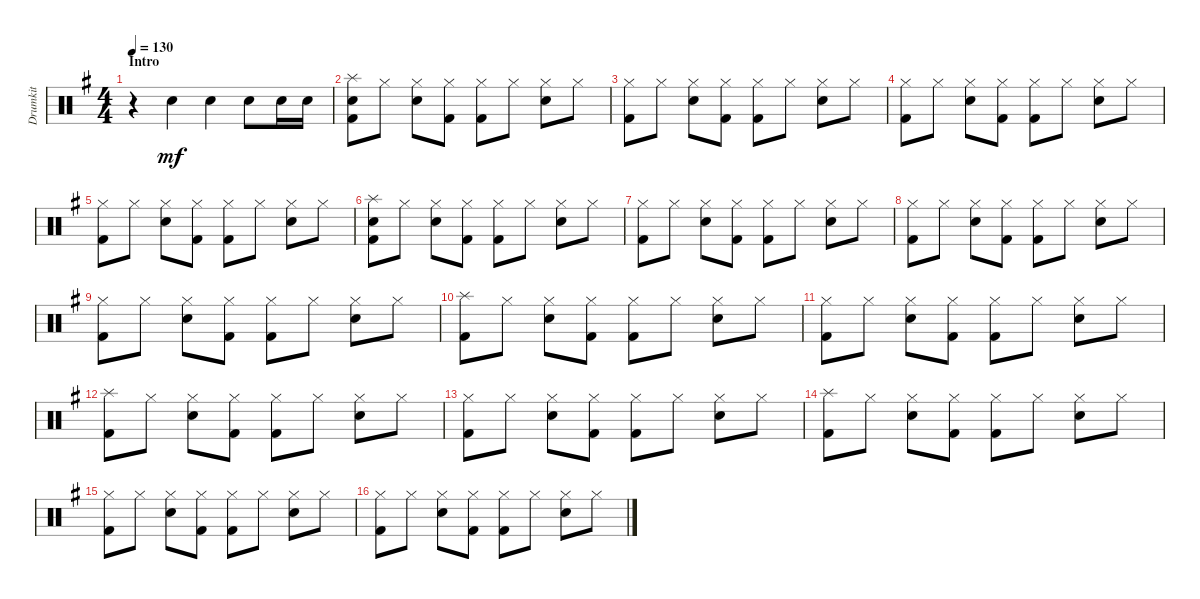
\track ("Drumkit" "Drumkit") {instrument percussion}
\staff {score}
\articulation defaults
\ts (4 4)
\section ("" "Intro")
\tempo 130
\clef neutral
\ks g
r.4{dy mf} "Snare (hit) 2".4 "Snare (hit) 2".4 "Snare (hit) 2".8 "Snare (hit) 2".16 "Snare (hit) 2".16 |
("Snare (hit) 2" "Splash (hit)" "Kick (hit) 2").8 "Hi-Hat (closed)".8 ("Hi-Hat (closed)" "Snare (hit) 2").8 ("Hi-Hat (closed)" "Kick (hit) 2").8 ("Hi-Hat (closed)" "Kick (hit) 2").8 "Hi-Hat (closed)".8 ("Hi-Hat (closed)" "Snare (hit) 2").8 "Hi-Hat (closed)".8 |
("Hi-Hat (closed)" "Kick (hit) 2").8 "Hi-Hat (closed)".8 ("Hi-Hat (closed)" "Snare (hit) 2").8 ("Hi-Hat (closed)" "Kick (hit) 2").8 ("Hi-Hat (closed)" "Kick (hit) 2").8 "Hi-Hat (closed)".8 ("Hi-Hat (closed)" "Snare (hit) 2").8 "Hi-Hat (closed)".8 |
("Hi-Hat (closed)" "Kick (hit) 2").8 "Hi-Hat (closed)".8 ("Hi-Hat (closed)" "Snare (hit) 2").8 ("Hi-Hat (closed)" "Kick (hit) 2").8 ("Hi-Hat (closed)" "Kick (hit) 2").8 "Hi-Hat (closed)".8 ("Hi-Hat (closed)" "Snare (hit) 2").8 "Hi-Hat (closed)".8 |
("Hi-Hat (closed)" "Kick (hit) 2").8 "Hi-Hat (closed)".8 ("Hi-Hat (closed)" "Snare (hit) 2").8 ("Hi-Hat (closed)" "Kick (hit) 2").8 ("Hi-Hat (closed)" "Kick (hit) 2").8 "Hi-Hat (closed)".8 ("Hi-Hat (closed)" "Snare (hit) 2").8 "Hi-Hat (closed)".8 |
("Snare (hit) 2" "Splash (hit)" "Kick (hit) 2").8 "Hi-Hat (closed)".8 ("Hi-Hat (closed)" "Snare (hit) 2").8 ("Hi-Hat (closed)" "Kick (hit) 2").8 ("Hi-Hat (closed)" "Kick (hit) 2").8 "Hi-Hat (closed)".8 ("Hi-Hat (closed)" "Snare (hit) 2").8 "Hi-Hat (closed)".8 |
("Hi-Hat (closed)" "Kick (hit) 2").8 "Hi-Hat (closed)".8 ("Hi-Hat (closed)" "Snare (hit) 2").8 ("Hi-Hat (closed)" "Kick (hit) 2").8 ("Hi-Hat (closed)" "Kick (hit) 2").8 "Hi-Hat (closed)".8 ("Hi-Hat (closed)" "Snare (hit) 2").8 "Hi-Hat (closed)".8 |
("Hi-Hat (closed)" "Kick (hit) 2").8 "Hi-Hat (closed)".8 ("Hi-Hat (closed)" "Snare (hit) 2").8 ("Hi-Hat (closed)" "Kick (hit) 2").8 ("Hi-Hat (closed)" "Kick (hit) 2").8 "Hi-Hat (closed)".8 ("Hi-Hat (closed)" "Snare (hit) 2").8 "Hi-Hat (closed)".8 |
("Hi-Hat (closed)" "Kick (hit) 2").8 "Hi-Hat (closed)".8 ("Hi-Hat (closed)" "Snare (hit) 2").8 ("Hi-Hat (closed)" "Kick (hit) 2").8 ("Hi-Hat (closed)" "Kick (hit) 2").8 "Hi-Hat (closed)".8 ("Hi-Hat (closed)" "Snare (hit) 2").8 "Hi-Hat (closed)".8 |
("Splash (hit)" "Kick (hit) 2").8 "Hi-Hat (closed)".8 ("Hi-Hat (closed)" "Snare (hit) 2").8 ("Hi-Hat (closed)" "Kick (hit) 2").8 ("Hi-Hat (closed)" "Kick (hit) 2").8 "Hi-Hat (closed)".8 ("Hi-Hat (closed)" "Snare (hit) 2").8 "Hi-Hat (closed)".8 |
("Hi-Hat (closed)" "Kick (hit) 2").8 "Hi-Hat (closed)".8 ("Hi-Hat (closed)" "Snare (hit) 2").8 ("Hi-Hat (closed)" "Kick (hit) 2").8 ("Hi-Hat (closed)" "Kick (hit) 2").8 "Hi-Hat (closed)".8 ("Hi-Hat (closed)" "Snare (hit) 2").8 "Hi-Hat (closed)".8 |
("Splash (hit)" "Kick (hit) 2").8 "Hi-Hat (closed)".8 ("Hi-Hat (closed)" "Snare (hit) 2").8 ("Hi-Hat (closed)" "Kick (hit) 2").8 ("Hi-Hat (closed)" "Kick (hit) 2").8 "Hi-Hat (closed)".8 ("Hi-Hat (closed)" "Snare (hit) 2").8 "Hi-Hat (closed)".8 |
("Hi-Hat (closed)" "Kick (hit) 2").8 "Hi-Hat (closed)".8 ("Hi-Hat (closed)" "Snare (hit) 2").8 ("Hi-Hat (closed)" "Kick (hit) 2").8 ("Hi-Hat (closed)" "Kick (hit) 2").8 "Hi-Hat (closed)".8 ("Hi-Hat (closed)" "Snare (hit) 2").8 "Hi-Hat (closed)".8 |
("Splash (hit)" "Kick (hit) 2").8 "Hi-Hat (closed)".8 ("Hi-Hat (closed)" "Snare (hit) 2").8 ("Hi-Hat (closed)" "Kick (hit) 2").8 ("Hi-Hat (closed)" "Kick (hit) 2").8 "Hi-Hat (closed)".8 ("Hi-Hat (closed)" "Snare (hit) 2").8 "Hi-Hat (closed)".8 |
("Hi-Hat (closed)" "Kick (hit) 2").8 "Hi-Hat (closed)".8 ("Hi-Hat (closed)" "Snare (hit) 2").8 ("Hi-Hat (closed)" "Kick (hit) 2").8 ("Hi-Hat (closed)" "Kick (hit) 2").8 "Hi-Hat (closed)".8 ("Hi-Hat (closed)" "Snare (hit) 2").8 "Hi-Hat (closed)".8 |
("Hi-Hat (closed)" "Kick (hit) 2").8 "Hi-Hat (closed)".8 ("Hi-Hat (closed)" "Snare (hit) 2").8 ("Hi-Hat (closed)" "Kick (hit) 2").8 ("Hi-Hat (closed)" "Kick (hit) 2").8 "Hi-Hat (closed)".8 ("Hi-Hat (closed)" "Snare (hit) 2").8 "Hi-Hat (closed)".8
